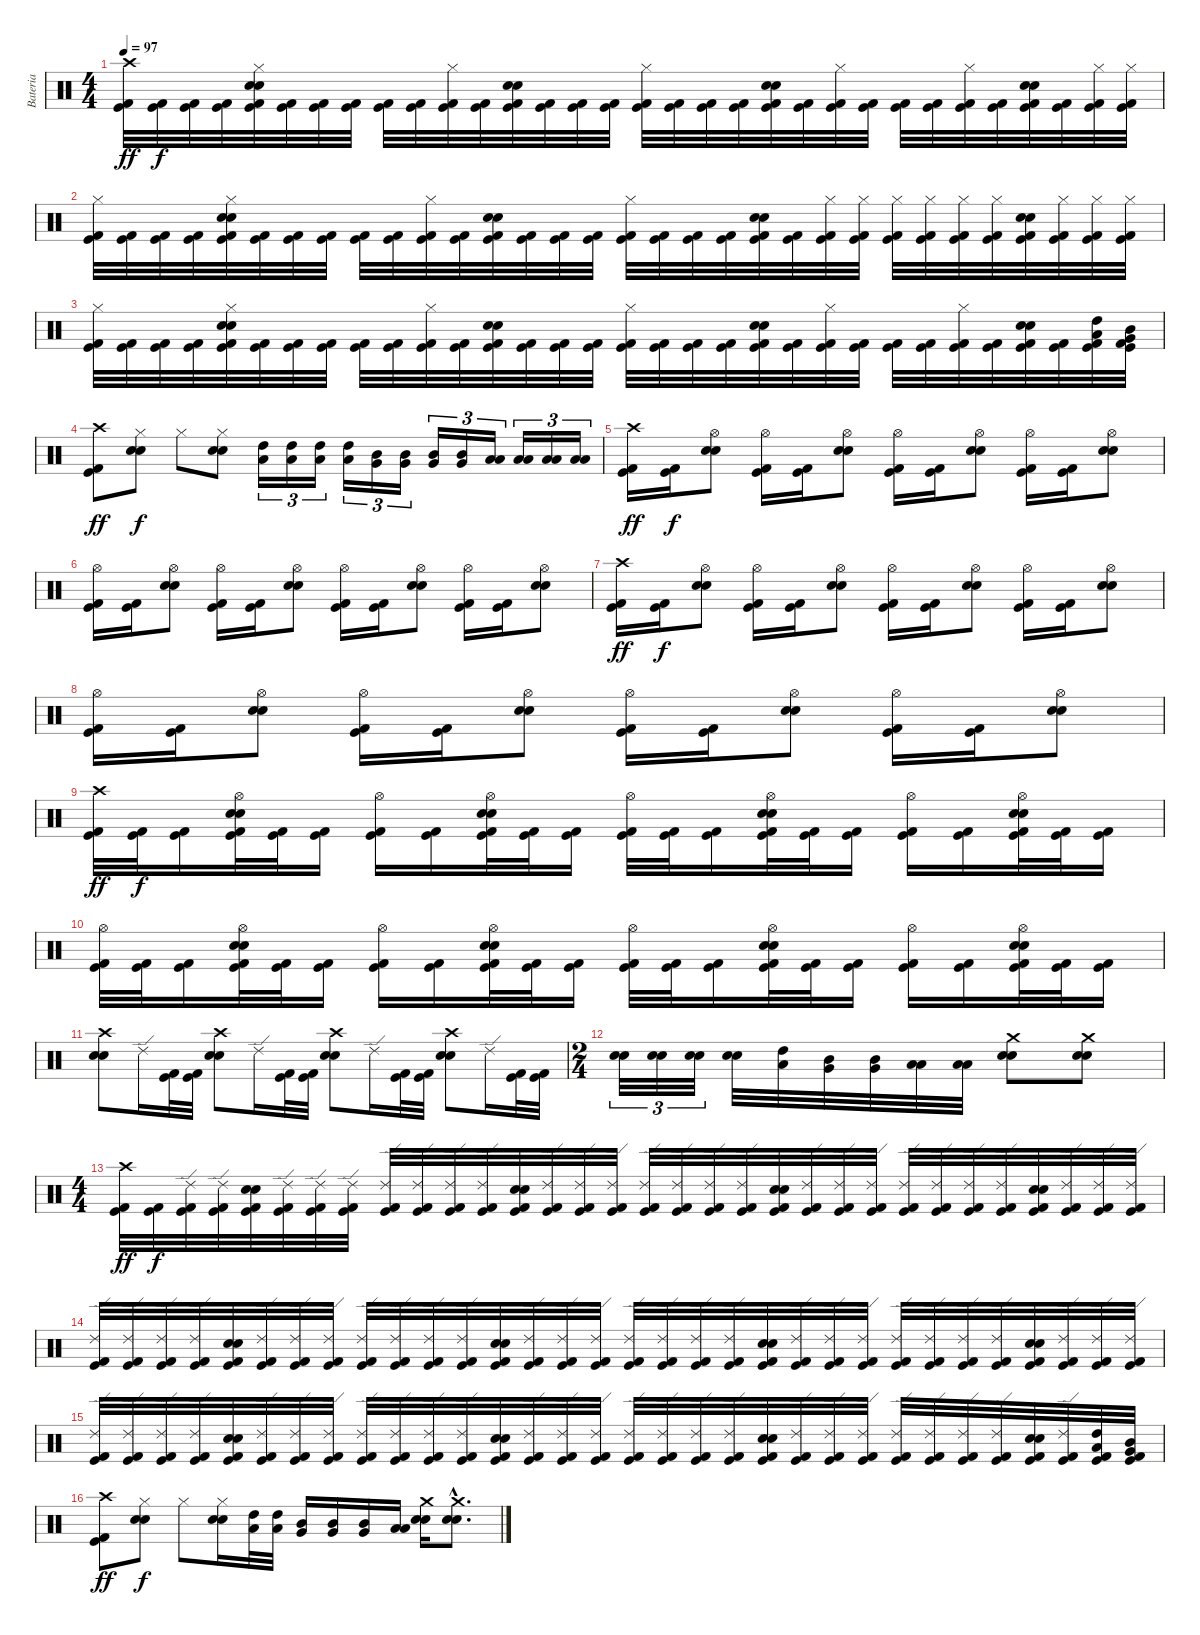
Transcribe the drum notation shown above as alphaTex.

\track ("Bateria" "Bateria") {instrument percussion}
\staff {score}
\articulation defaults
\ts (4 4)
\tempo 97
\clef neutral
\ks c
("Crash high (hit)" "Kick (hit) 2" "Kick (hit)").32{dy ff} ("Kick (hit) 2" "Kick (hit)").32{dy f} ("Kick (hit) 2" "Kick (hit)").32 ("Kick (hit) 2" "Kick (hit)").32 ("Hi-Hat (closed)" "Electric Snare (hit)" "Snare (hit) 2" "Kick (hit) 2" "Kick (hit)").32 ("Kick (hit) 2" "Kick (hit)").32 ("Kick (hit) 2" "Kick (hit)").32 ("Kick (hit) 2" "Kick (hit)").32 ("Kick (hit) 2" "Kick (hit)").32 ("Kick (hit) 2" "Kick (hit)").32 ("Hi-Hat (closed)" "Kick (hit) 2" "Kick (hit)").32 ("Kick (hit) 2" "Kick (hit)").32 ("Electric Snare (hit)" "Snare (hit) 2" "Kick (hit) 2" "Kick (hit)").32 ("Kick (hit) 2" "Kick (hit)").32 ("Kick (hit) 2" "Kick (hit)").32 ("Kick (hit) 2" "Kick (hit)").32 ("Hi-Hat (closed)" "Kick (hit) 2" "Kick (hit)").32 ("Kick (hit) 2" "Kick (hit)").32 ("Kick (hit) 2" "Kick (hit)").32 ("Kick (hit) 2" "Kick (hit)").32 ("Electric Snare (hit)" "Snare (hit) 2" "Kick (hit) 2" "Kick (hit)").32 ("Kick (hit) 2" "Kick (hit)").32 ("Hi-Hat (closed)" "Kick (hit) 2" "Kick (hit)").32 ("Kick (hit) 2" "Kick (hit)").32 ("Kick (hit) 2" "Kick (hit)").32 ("Kick (hit) 2" "Kick (hit)").32 ("Hi-Hat (closed)" "Kick (hit) 2" "Kick (hit)").32 ("Kick (hit) 2" "Kick (hit)").32 ("Electric Snare (hit)" "Snare (hit) 2" "Kick (hit) 2" "Kick (hit)").32 ("Kick (hit) 2" "Kick (hit)").32 ("Hi-Hat (closed)" "Kick (hit) 2" "Kick (hit)").32 ("Hi-Hat (closed)" "Kick (hit) 2" "Kick (hit)").32 |
("Hi-Hat (closed)" "Kick (hit) 2" "Kick (hit)").32 ("Kick (hit) 2" "Kick (hit)").32 ("Kick (hit) 2" "Kick (hit)").32 ("Kick (hit) 2" "Kick (hit)").32 ("Hi-Hat (closed)" "Electric Snare (hit)" "Snare (hit) 2" "Kick (hit) 2" "Kick (hit)").32 ("Kick (hit) 2" "Kick (hit)").32 ("Kick (hit) 2" "Kick (hit)").32 ("Kick (hit) 2" "Kick (hit)").32 ("Kick (hit) 2" "Kick (hit)").32 ("Kick (hit) 2" "Kick (hit)").32 ("Hi-Hat (closed)" "Kick (hit) 2" "Kick (hit)").32 ("Kick (hit) 2" "Kick (hit)").32 ("Electric Snare (hit)" "Snare (hit) 2" "Kick (hit) 2" "Kick (hit)").32 ("Kick (hit) 2" "Kick (hit)").32 ("Kick (hit) 2" "Kick (hit)").32 ("Kick (hit) 2" "Kick (hit)").32 ("Hi-Hat (closed)" "Kick (hit) 2" "Kick (hit)").32 ("Kick (hit) 2" "Kick (hit)").32 ("Kick (hit) 2" "Kick (hit)").32 ("Kick (hit) 2" "Kick (hit)").32 ("Electric Snare (hit)" "Snare (hit) 2" "Kick (hit) 2" "Kick (hit)").32 ("Kick (hit) 2" "Kick (hit)").32 ("Hi-Hat (closed)" "Kick (hit) 2" "Kick (hit)").32 ("Hi-Hat (closed)" "Kick (hit) 2" "Kick (hit)").32 ("Hi-Hat (closed)" "Kick (hit) 2" "Kick (hit)").32 ("Hi-Hat (closed)" "Kick (hit) 2" "Kick (hit)").32 ("Hi-Hat (closed)" "Kick (hit) 2" "Kick (hit)").32 ("Hi-Hat (closed)" "Kick (hit) 2" "Kick (hit)").32 ("Electric Snare (hit)" "Snare (hit) 2" "Kick (hit) 2" "Kick (hit)").32 ("Hi-Hat (closed)" "Kick (hit) 2" "Kick (hit)").32 ("Hi-Hat (closed)" "Kick (hit) 2" "Kick (hit)").32 ("Hi-Hat (closed)" "Kick (hit) 2" "Kick (hit)").32 |
("Hi-Hat (closed)" "Kick (hit) 2" "Kick (hit)").32 ("Kick (hit) 2" "Kick (hit)").32 ("Kick (hit) 2" "Kick (hit)").32 ("Kick (hit) 2" "Kick (hit)").32 ("Hi-Hat (closed)" "Electric Snare (hit)" "Snare (hit) 2" "Kick (hit) 2" "Kick (hit)").32 ("Kick (hit) 2" "Kick (hit)").32 ("Kick (hit) 2" "Kick (hit)").32 ("Kick (hit) 2" "Kick (hit)").32 ("Kick (hit) 2" "Kick (hit)").32 ("Kick (hit) 2" "Kick (hit)").32 ("Hi-Hat (closed)" "Kick (hit) 2" "Kick (hit)").32 ("Kick (hit) 2" "Kick (hit)").32 ("Electric Snare (hit)" "Snare (hit) 2" "Kick (hit) 2" "Kick (hit)").32 ("Kick (hit) 2" "Kick (hit)").32 ("Kick (hit) 2" "Kick (hit)").32 ("Kick (hit) 2" "Kick (hit)").32 ("Hi-Hat (closed)" "Kick (hit) 2" "Kick (hit)").32 ("Kick (hit) 2" "Kick (hit)").32 ("Kick (hit) 2" "Kick (hit)").32 ("Kick (hit) 2" "Kick (hit)").32 ("Electric Snare (hit)" "Snare (hit) 2" "Kick (hit) 2" "Kick (hit)").32 ("Kick (hit) 2" "Kick (hit)").32 ("Hi-Hat (closed)" "Kick (hit) 2" "Kick (hit)").32 ("Kick (hit) 2" "Kick (hit)").32 ("Kick (hit) 2" "Kick (hit)").32 ("Kick (hit) 2" "Kick (hit)").32 ("Hi-Hat (closed)" "Kick (hit) 2" "Kick (hit)").32 ("Kick (hit) 2" "Kick (hit)").32 ("Electric Snare (hit)" "Snare (hit) 2" "Kick (hit) 2" "Kick (hit)").32 ("Kick (hit) 2" "Kick (hit)").32 ("High Tom (hit)" "Low Tom (hit)" "Kick (hit) 2" "Kick (hit)").32 ("Mid Tom (hit)" "Very Low Tom (hit)" "Kick (hit) 2" "Kick (hit)").32 |
("Crash high (hit)" "Kick (hit) 2" "Kick (hit)").8{dy ff} ("Hi-Hat (closed)" "Electric Snare (hit)" "Snare (hit) 2").8{dy f} "Hi-Hat (closed)".8 ("Hi-Hat (closed)" "Electric Snare (hit)" "Snare (hit) 2").8 ("High Tom (hit)" "Low Tom (hit)").16{tu (3 2)} ("High Tom (hit)" "Low Tom (hit)").16{tu (3 2)} ("High Tom (hit)" "Low Tom (hit)").16{tu (3 2)} ("High Tom (hit)" "Low Tom (hit)").16{tu (3 2)} ("Mid Tom (hit)" "Very Low Tom (hit)").16{tu (3 2)} ("Mid Tom (hit)" "Very Low Tom (hit)").16{tu (3 2)} ("Mid Tom (hit)" "Very Low Tom (hit)").16{tu (3 2)} ("Mid Tom (hit)" "Very Low Tom (hit)").16{tu (3 2)} ("Low Tom (hit)" "Low Floor Tom (hit)").16{tu (3 2)} ("Low Tom (hit)" "Low Floor Tom (hit)").16{tu (3 2)} ("Low Tom (hit)" "Low Floor Tom (hit)").16{tu (3 2)} ("Low Tom (hit)" "Low Floor Tom (hit)").16{tu (3 2)} |
("Crash high (hit)" "Kick (hit) 2" "Kick (hit)").16{dy ff} ("Kick (hit) 2" "Kick (hit)").16{dy f} ("Hi-Hat (open)" "Electric Snare (hit)" "Snare (hit) 2").8 ("Hi-Hat (open)" "Kick (hit) 2" "Kick (hit)").16 ("Kick (hit) 2" "Kick (hit)").16 ("Hi-Hat (open)" "Electric Snare (hit)" "Snare (hit) 2").8 ("Hi-Hat (open)" "Kick (hit) 2" "Kick (hit)").16 ("Kick (hit) 2" "Kick (hit)").16 ("Hi-Hat (open)" "Electric Snare (hit)" "Snare (hit) 2").8 ("Hi-Hat (open)" "Kick (hit) 2" "Kick (hit)").16 ("Kick (hit) 2" "Kick (hit)").16 ("Hi-Hat (open)" "Electric Snare (hit)" "Snare (hit) 2").8 |
("Hi-Hat (open)" "Kick (hit) 2" "Kick (hit)").16 ("Kick (hit) 2" "Kick (hit)").16 ("Hi-Hat (open)" "Electric Snare (hit)" "Snare (hit) 2").8 ("Hi-Hat (open)" "Kick (hit) 2" "Kick (hit)").16 ("Kick (hit) 2" "Kick (hit)").16 ("Hi-Hat (open)" "Electric Snare (hit)" "Snare (hit) 2").8 ("Hi-Hat (open)" "Kick (hit) 2" "Kick (hit)").16 ("Kick (hit) 2" "Kick (hit)").16 ("Hi-Hat (open)" "Electric Snare (hit)" "Snare (hit) 2").8 ("Hi-Hat (open)" "Kick (hit) 2" "Kick (hit)").16 ("Kick (hit) 2" "Kick (hit)").16 ("Hi-Hat (open)" "Electric Snare (hit)" "Snare (hit) 2").8 |
("Crash high (hit)" "Kick (hit) 2" "Kick (hit)").16{dy ff} ("Kick (hit) 2" "Kick (hit)").16{dy f} ("Hi-Hat (open)" "Electric Snare (hit)" "Snare (hit) 2").8 ("Hi-Hat (open)" "Kick (hit) 2" "Kick (hit)").16 ("Kick (hit) 2" "Kick (hit)").16 ("Hi-Hat (open)" "Electric Snare (hit)" "Snare (hit) 2").8 ("Hi-Hat (open)" "Kick (hit) 2" "Kick (hit)").16 ("Kick (hit) 2" "Kick (hit)").16 ("Hi-Hat (open)" "Electric Snare (hit)" "Snare (hit) 2").8 ("Hi-Hat (open)" "Kick (hit) 2" "Kick (hit)").16 ("Kick (hit) 2" "Kick (hit)").16 ("Hi-Hat (open)" "Electric Snare (hit)" "Snare (hit) 2").8 |
("Hi-Hat (open)" "Kick (hit) 2" "Kick (hit)").16 ("Kick (hit) 2" "Kick (hit)").16 ("Hi-Hat (open)" "Electric Snare (hit)" "Snare (hit) 2").8 ("Hi-Hat (open)" "Kick (hit) 2" "Kick (hit)").16 ("Kick (hit) 2" "Kick (hit)").16 ("Hi-Hat (open)" "Electric Snare (hit)" "Snare (hit) 2").8 ("Hi-Hat (open)" "Kick (hit) 2" "Kick (hit)").16 ("Kick (hit) 2" "Kick (hit)").16 ("Hi-Hat (open)" "Electric Snare (hit)" "Snare (hit) 2").8 ("Hi-Hat (open)" "Kick (hit) 2" "Kick (hit)").16 ("Kick (hit) 2" "Kick (hit)").16 ("Hi-Hat (open)" "Electric Snare (hit)" "Snare (hit) 2").8 |
("Crash high (hit)" "Kick (hit) 2" "Kick (hit)").32{dy ff} ("Kick (hit) 2" "Kick (hit)").32{dy f} ("Kick (hit) 2" "Kick (hit)").16 ("Hi-Hat (open)" "Electric Snare (hit)" "Snare (hit) 2" "Kick (hit) 2" "Kick (hit)").32 ("Kick (hit) 2" "Kick (hit)").32 ("Kick (hit) 2" "Kick (hit)").16 ("Hi-Hat (open)" "Kick (hit) 2" "Kick (hit)").16 ("Kick (hit) 2" "Kick (hit)").16 ("Hi-Hat (open)" "Electric Snare (hit)" "Snare (hit) 2" "Kick (hit) 2" "Kick (hit)").32 ("Kick (hit) 2" "Kick (hit)").32 ("Kick (hit) 2" "Kick (hit)").16 ("Hi-Hat (open)" "Kick (hit) 2" "Kick (hit)").32 ("Kick (hit) 2" "Kick (hit)").32 ("Kick (hit) 2" "Kick (hit)").16 ("Hi-Hat (open)" "Electric Snare (hit)" "Snare (hit) 2" "Kick (hit) 2" "Kick (hit)").32 ("Kick (hit) 2" "Kick (hit)").32 ("Kick (hit) 2" "Kick (hit)").16 ("Hi-Hat (open)" "Kick (hit) 2" "Kick (hit)").16 ("Kick (hit) 2" "Kick (hit)").16 ("Hi-Hat (open)" "Electric Snare (hit)" "Snare (hit) 2" "Kick (hit) 2" "Kick (hit)").32 ("Kick (hit) 2" "Kick (hit)").32 ("Kick (hit) 2" "Kick (hit)").16 |
("Hi-Hat (open)" "Kick (hit) 2" "Kick (hit)").32 ("Kick (hit) 2" "Kick (hit)").32 ("Kick (hit) 2" "Kick (hit)").16 ("Hi-Hat (open)" "Electric Snare (hit)" "Snare (hit) 2" "Kick (hit) 2" "Kick (hit)").32 ("Kick (hit) 2" "Kick (hit)").32 ("Kick (hit) 2" "Kick (hit)").16 ("Hi-Hat (open)" "Kick (hit) 2" "Kick (hit)").16 ("Kick (hit) 2" "Kick (hit)").16 ("Hi-Hat (open)" "Electric Snare (hit)" "Snare (hit) 2" "Kick (hit) 2" "Kick (hit)").32 ("Kick (hit) 2" "Kick (hit)").32 ("Kick (hit) 2" "Kick (hit)").16 ("Hi-Hat (open)" "Kick (hit) 2" "Kick (hit)").32 ("Kick (hit) 2" "Kick (hit)").32 ("Kick (hit) 2" "Kick (hit)").16 ("Hi-Hat (open)" "Electric Snare (hit)" "Snare (hit) 2" "Kick (hit) 2" "Kick (hit)").32 ("Kick (hit) 2" "Kick (hit)").32 ("Kick (hit) 2" "Kick (hit)").16 ("Hi-Hat (open)" "Kick (hit) 2" "Kick (hit)").16 ("Kick (hit) 2" "Kick (hit)").16 ("Hi-Hat (open)" "Electric Snare (hit)" "Snare (hit) 2" "Kick (hit) 2" "Kick (hit)").32 ("Kick (hit) 2" "Kick (hit)").32 ("Kick (hit) 2" "Kick (hit)").16 |
("Crash high (hit)" "Electric Snare (hit)" "Snare (hit) 2").8 "Ride (edge) 2".16 ("Kick (hit) 2" "Kick (hit)").32 ("Kick (hit) 2" "Kick (hit)").32 ("Crash high (hit)" "Electric Snare (hit)" "Snare (hit) 2").8 "Ride (edge) 2".16 ("Kick (hit) 2" "Kick (hit)").32 ("Kick (hit) 2" "Kick (hit)").32 ("Crash high (hit)" "Electric Snare (hit)" "Snare (hit) 2").8 "Ride (edge) 2".16 ("Kick (hit) 2" "Kick (hit)").32 ("Kick (hit) 2" "Kick (hit)").32 ("Crash high (hit)" "Electric Snare (hit)" "Snare (hit) 2").8 "Ride (edge) 2".16 ("Kick (hit) 2" "Kick (hit)").32 ("Kick (hit) 2" "Kick (hit)").32 |
\ts (2 4)
("Electric Snare (hit)" "Snare (hit) 2").32{tu (3 2)} ("Electric Snare (hit)" "Snare (hit) 2").32{tu (3 2)} ("Electric Snare (hit)" "Snare (hit) 2").32{tu (3 2)} ("Electric Snare (hit)" "Snare (hit) 2").32 ("High Tom (hit)" "Low Tom (hit)").32 ("Mid Tom (hit)" "Very Low Tom (hit)").32 ("Mid Tom (hit)" "Very Low Tom (hit)").32 ("Low Tom (hit)" "Low Floor Tom (hit)").32 ("Low Tom (hit)" "Low Floor Tom (hit)").32 ("Crash medium (hit)" "Electric Snare (hit)" "Snare (hit) 2").8 ("Crash medium (hit)" "Electric Snare (hit)" "Snare (hit) 2").8 |
\ts (4 4)
("Crash high (hit)" "Kick (hit) 2" "Kick (hit)").32{dy ff} ("Kick (hit) 2" "Kick (hit)").32{dy f} ("Ride (edge) 2" "Kick (hit) 2" "Kick (hit)").32 ("Ride (edge) 2" "Kick (hit) 2" "Kick (hit)").32 ("Electric Snare (hit)" "Snare (hit) 2" "Kick (hit) 2" "Kick (hit)").32 ("Ride (edge) 2" "Kick (hit) 2" "Kick (hit)").32 ("Ride (edge) 2" "Kick (hit) 2" "Kick (hit)").32 ("Ride (edge) 2" "Kick (hit) 2" "Kick (hit)").32 ("Ride (edge) 2" "Kick (hit) 2" "Kick (hit)").32 ("Ride (edge) 2" "Kick (hit) 2" "Kick (hit)").32 ("Ride (edge) 2" "Kick (hit) 2" "Kick (hit)").32 ("Ride (edge) 2" "Kick (hit) 2" "Kick (hit)").32 ("Electric Snare (hit)" "Snare (hit) 2" "Kick (hit) 2" "Kick (hit)").32 ("Ride (edge) 2" "Kick (hit) 2" "Kick (hit)").32 ("Ride (edge) 2" "Kick (hit) 2" "Kick (hit)").32 ("Ride (edge) 2" "Kick (hit) 2" "Kick (hit)").32 ("Ride (edge) 2" "Kick (hit) 2" "Kick (hit)").32 ("Ride (edge) 2" "Kick (hit) 2" "Kick (hit)").32 ("Ride (edge) 2" "Kick (hit) 2" "Kick (hit)").32 ("Ride (edge) 2" "Kick (hit) 2" "Kick (hit)").32 ("Electric Snare (hit)" "Snare (hit) 2" "Kick (hit) 2" "Kick (hit)").32 ("Ride (edge) 2" "Kick (hit) 2" "Kick (hit)").32 ("Ride (edge) 2" "Kick (hit) 2" "Kick (hit)").32 ("Ride (edge) 2" "Kick (hit) 2" "Kick (hit)").32 ("Ride (edge) 2" "Kick (hit) 2" "Kick (hit)").32 ("Ride (edge) 2" "Kick (hit) 2" "Kick (hit)").32 ("Ride (edge) 2" "Kick (hit) 2" "Kick (hit)").32 ("Ride (edge) 2" "Kick (hit) 2" "Kick (hit)").32 ("Electric Snare (hit)" "Snare (hit) 2" "Kick (hit) 2" "Kick (hit)").32 ("Ride (edge) 2" "Kick (hit) 2" "Kick (hit)").32 ("Ride (edge) 2" "Kick (hit) 2" "Kick (hit)").32 ("Ride (edge) 2" "Kick (hit) 2" "Kick (hit)").32 |
("Ride (edge) 2" "Kick (hit) 2" "Kick (hit)").32 ("Ride (edge) 2" "Kick (hit) 2" "Kick (hit)").32 ("Ride (edge) 2" "Kick (hit) 2" "Kick (hit)").32 ("Ride (edge) 2" "Kick (hit) 2" "Kick (hit)").32 ("Electric Snare (hit)" "Snare (hit) 2" "Kick (hit) 2" "Kick (hit)").32 ("Ride (edge) 2" "Kick (hit) 2" "Kick (hit)").32 ("Ride (edge) 2" "Kick (hit) 2" "Kick (hit)").32 ("Ride (edge) 2" "Kick (hit) 2" "Kick (hit)").32 ("Ride (edge) 2" "Kick (hit) 2" "Kick (hit)").32 ("Ride (edge) 2" "Kick (hit) 2" "Kick (hit)").32 ("Ride (edge) 2" "Kick (hit) 2" "Kick (hit)").32 ("Ride (edge) 2" "Kick (hit) 2" "Kick (hit)").32 ("Electric Snare (hit)" "Snare (hit) 2" "Kick (hit) 2" "Kick (hit)").32 ("Ride (edge) 2" "Kick (hit) 2" "Kick (hit)").32 ("Ride (edge) 2" "Kick (hit) 2" "Kick (hit)").32 ("Ride (edge) 2" "Kick (hit) 2" "Kick (hit)").32 ("Ride (edge) 2" "Kick (hit) 2" "Kick (hit)").32 ("Ride (edge) 2" "Kick (hit) 2" "Kick (hit)").32 ("Ride (edge) 2" "Kick (hit) 2" "Kick (hit)").32 ("Ride (edge) 2" "Kick (hit) 2" "Kick (hit)").32 ("Electric Snare (hit)" "Snare (hit) 2" "Kick (hit) 2" "Kick (hit)").32 ("Ride (edge) 2" "Kick (hit) 2" "Kick (hit)").32 ("Ride (edge) 2" "Kick (hit) 2" "Kick (hit)").32 ("Ride (edge) 2" "Kick (hit) 2" "Kick (hit)").32 ("Ride (edge) 2" "Kick (hit) 2" "Kick (hit)").32 ("Ride (edge) 2" "Kick (hit) 2" "Kick (hit)").32 ("Ride (edge) 2" "Kick (hit) 2" "Kick (hit)").32 ("Ride (edge) 2" "Kick (hit) 2" "Kick (hit)").32 ("Electric Snare (hit)" "Snare (hit) 2" "Kick (hit) 2" "Kick (hit)").32 ("Ride (edge) 2" "Kick (hit) 2" "Kick (hit)").32 ("Ride (edge) 2" "Kick (hit) 2" "Kick (hit)").32 ("Ride (edge) 2" "Kick (hit) 2" "Kick (hit)").32 |
("Ride (edge) 2" "Kick (hit) 2" "Kick (hit)").32 ("Ride (edge) 2" "Kick (hit) 2" "Kick (hit)").32 ("Ride (edge) 2" "Kick (hit) 2" "Kick (hit)").32 ("Ride (edge) 2" "Kick (hit) 2" "Kick (hit)").32 ("Electric Snare (hit)" "Snare (hit) 2" "Kick (hit) 2" "Kick (hit)").32 ("Ride (edge) 2" "Kick (hit) 2" "Kick (hit)").32 ("Ride (edge) 2" "Kick (hit) 2" "Kick (hit)").32 ("Ride (edge) 2" "Kick (hit) 2" "Kick (hit)").32 ("Ride (edge) 2" "Kick (hit) 2" "Kick (hit)").32 ("Ride (edge) 2" "Kick (hit) 2" "Kick (hit)").32 ("Ride (edge) 2" "Kick (hit) 2" "Kick (hit)").32 ("Ride (edge) 2" "Kick (hit) 2" "Kick (hit)").32 ("Electric Snare (hit)" "Snare (hit) 2" "Kick (hit) 2" "Kick (hit)").32 ("Ride (edge) 2" "Kick (hit) 2" "Kick (hit)").32 ("Ride (edge) 2" "Kick (hit) 2" "Kick (hit)").32 ("Ride (edge) 2" "Kick (hit) 2" "Kick (hit)").32 ("Ride (edge) 2" "Kick (hit) 2" "Kick (hit)").32 ("Ride (edge) 2" "Kick (hit) 2" "Kick (hit)").32 ("Ride (edge) 2" "Kick (hit) 2" "Kick (hit)").32 ("Ride (edge) 2" "Kick (hit) 2" "Kick (hit)").32 ("Electric Snare (hit)" "Snare (hit) 2" "Kick (hit) 2" "Kick (hit)").32 ("Ride (edge) 2" "Kick (hit) 2" "Kick (hit)").32 ("Ride (edge) 2" "Kick (hit) 2" "Kick (hit)").32 ("Ride (edge) 2" "Kick (hit) 2" "Kick (hit)").32 ("Ride (edge) 2" "Kick (hit) 2" "Kick (hit)").32 ("Ride (edge) 2" "Kick (hit) 2" "Kick (hit)").32 ("Ride (edge) 2" "Kick (hit) 2" "Kick (hit)").32 ("Ride (edge) 2" "Kick (hit) 2" "Kick (hit)").32 ("Electric Snare (hit)" "Snare (hit) 2" "Kick (hit) 2" "Kick (hit)").32 ("Ride (edge) 2" "Kick (hit) 2" "Kick (hit)").32 ("High Tom (hit)" "Low Tom (hit)" "Kick (hit) 2" "Kick (hit)").32 ("Mid Tom (hit)" "Very Low Tom (hit)" "Kick (hit) 2" "Kick (hit)").32 |
("Crash high (hit)" "Kick (hit) 2" "Kick (hit)").8{dy ff} ("Hi-Hat (closed)" "Electric Snare (hit)" "Snare (hit) 2").8{dy f} "Hi-Hat (closed)".8 ("Hi-Hat (closed)" "Electric Snare (hit)" "Snare (hit) 2").16 ("High Tom (hit)" "Low Tom (hit)").32 ("High Tom (hit)" "Low Tom (hit)").32 ("Mid Tom (hit)" "Very Low Tom (hit)").16 ("Mid Tom (hit)" "Very Low Tom (hit)").16 ("Mid Tom (hit)" "Very Low Tom (hit)").16 ("Low Tom (hit)" "Low Floor Tom (hit)").16 ("Crash medium (hit)" "Electric Snare (hit)" "Snare (hit) 2").16 ("Crash medium (hit)"{hac} "Electric Snare (hit)"{hac} "Snare (hit) 2"{hac}).8{d}
